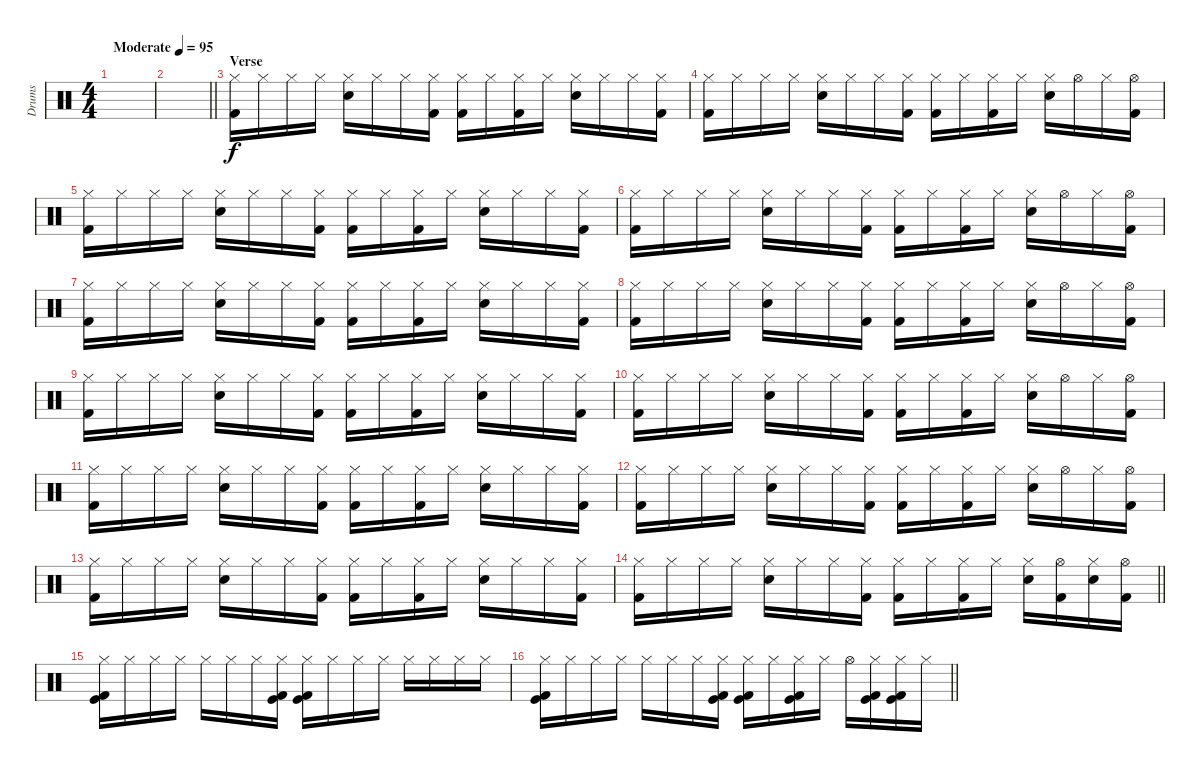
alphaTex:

\track ("Drums" "Drums") {instrument percussion}
\staff {score}
\articulation defaults
\ts (4 4)
\tempo (95 "Moderate")
\clef neutral
\ks c
|
\barLineRight lightlight
|
\section ("" "Verse")
("Hi-Hat (closed)" "Kick (hit) 2").16 "Hi-Hat (closed)".16 "Hi-Hat (closed)".16 "Hi-Hat (closed)".16 ("Hi-Hat (closed)" "Electric Snare (hit)").16 "Hi-Hat (closed)".16 "Hi-Hat (closed)".16 ("Hi-Hat (closed)" "Kick (hit) 2").16 ("Hi-Hat (closed)" "Kick (hit) 2").16 "Hi-Hat (closed)".16 ("Hi-Hat (closed)" "Kick (hit) 2").16 "Hi-Hat (closed)".16 ("Hi-Hat (closed)" "Electric Snare (hit)").16 "Hi-Hat (closed)".16 "Hi-Hat (closed)".16 ("Kick (hit) 2" "Hi-Hat (closed)").16 |
("Hi-Hat (closed)" "Kick (hit) 2").16 "Hi-Hat (closed)".16 "Hi-Hat (closed)".16 "Hi-Hat (closed)".16 ("Hi-Hat (closed)" "Electric Snare (hit)").16 "Hi-Hat (closed)".16 "Hi-Hat (closed)".16 ("Hi-Hat (closed)" "Kick (hit) 2").16 ("Hi-Hat (closed)" "Kick (hit) 2").16 "Hi-Hat (closed)".16 ("Hi-Hat (closed)" "Kick (hit) 2").16 "Hi-Hat (closed)".16 ("Hi-Hat (closed)" "Electric Snare (hit)").16 "Hi-Hat (open)".16 "Hi-Hat (closed)".16 ("Hi-Hat (open)" "Kick (hit) 2").16 |
("Hi-Hat (closed)" "Kick (hit) 2").16 "Hi-Hat (closed)".16 "Hi-Hat (closed)".16 "Hi-Hat (closed)".16 ("Hi-Hat (closed)" "Electric Snare (hit)").16 "Hi-Hat (closed)".16 "Hi-Hat (closed)".16 ("Hi-Hat (closed)" "Kick (hit) 2").16 ("Hi-Hat (closed)" "Kick (hit) 2").16 "Hi-Hat (closed)".16 ("Hi-Hat (closed)" "Kick (hit) 2").16 "Hi-Hat (closed)".16 ("Hi-Hat (closed)" "Electric Snare (hit)").16 "Hi-Hat (closed)".16 "Hi-Hat (closed)".16 ("Kick (hit) 2" "Hi-Hat (closed)").16 |
("Hi-Hat (closed)" "Kick (hit) 2").16 "Hi-Hat (closed)".16 "Hi-Hat (closed)".16 "Hi-Hat (closed)".16 ("Hi-Hat (closed)" "Electric Snare (hit)").16 "Hi-Hat (closed)".16 "Hi-Hat (closed)".16 ("Hi-Hat (closed)" "Kick (hit) 2").16 ("Hi-Hat (closed)" "Kick (hit) 2").16 "Hi-Hat (closed)".16 ("Hi-Hat (closed)" "Kick (hit) 2").16 "Hi-Hat (closed)".16 ("Hi-Hat (closed)" "Electric Snare (hit)").16 "Hi-Hat (open)".16 "Hi-Hat (closed)".16 ("Hi-Hat (open)" "Kick (hit) 2").16 |
("Hi-Hat (closed)" "Kick (hit) 2").16 "Hi-Hat (closed)".16 "Hi-Hat (closed)".16 "Hi-Hat (closed)".16 ("Hi-Hat (closed)" "Electric Snare (hit)").16 "Hi-Hat (closed)".16 "Hi-Hat (closed)".16 ("Hi-Hat (closed)" "Kick (hit) 2").16 ("Hi-Hat (closed)" "Kick (hit) 2").16 "Hi-Hat (closed)".16 ("Hi-Hat (closed)" "Kick (hit) 2").16 "Hi-Hat (closed)".16 ("Hi-Hat (closed)" "Electric Snare (hit)").16 "Hi-Hat (closed)".16 "Hi-Hat (closed)".16 ("Kick (hit) 2" "Hi-Hat (closed)").16 |
("Hi-Hat (closed)" "Kick (hit) 2").16 "Hi-Hat (closed)".16 "Hi-Hat (closed)".16 "Hi-Hat (closed)".16 ("Hi-Hat (closed)" "Electric Snare (hit)").16 "Hi-Hat (closed)".16 "Hi-Hat (closed)".16 ("Hi-Hat (closed)" "Kick (hit) 2").16 ("Hi-Hat (closed)" "Kick (hit) 2").16 "Hi-Hat (closed)".16 ("Hi-Hat (closed)" "Kick (hit) 2").16 "Hi-Hat (closed)".16 ("Hi-Hat (closed)" "Electric Snare (hit)").16 "Hi-Hat (open)".16 "Hi-Hat (closed)".16 ("Hi-Hat (open)" "Kick (hit) 2").16 |
("Hi-Hat (closed)" "Kick (hit) 2").16 "Hi-Hat (closed)".16 "Hi-Hat (closed)".16 "Hi-Hat (closed)".16 ("Hi-Hat (closed)" "Electric Snare (hit)").16 "Hi-Hat (closed)".16 "Hi-Hat (closed)".16 ("Hi-Hat (closed)" "Kick (hit) 2").16 ("Hi-Hat (closed)" "Kick (hit) 2").16 "Hi-Hat (closed)".16 ("Hi-Hat (closed)" "Kick (hit) 2").16 "Hi-Hat (closed)".16 ("Hi-Hat (closed)" "Electric Snare (hit)").16 "Hi-Hat (closed)".16 "Hi-Hat (closed)".16 ("Kick (hit) 2" "Hi-Hat (closed)").16 |
("Hi-Hat (closed)" "Kick (hit) 2").16 "Hi-Hat (closed)".16 "Hi-Hat (closed)".16 "Hi-Hat (closed)".16 ("Hi-Hat (closed)" "Electric Snare (hit)").16 "Hi-Hat (closed)".16 "Hi-Hat (closed)".16 ("Hi-Hat (closed)" "Kick (hit) 2").16 ("Hi-Hat (closed)" "Kick (hit) 2").16 "Hi-Hat (closed)".16 ("Hi-Hat (closed)" "Kick (hit) 2").16 "Hi-Hat (closed)".16 ("Hi-Hat (closed)" "Electric Snare (hit)").16 "Hi-Hat (open)".16 "Hi-Hat (closed)".16 ("Hi-Hat (open)" "Kick (hit) 2").16 |
("Hi-Hat (closed)" "Kick (hit) 2").16 "Hi-Hat (closed)".16 "Hi-Hat (closed)".16 "Hi-Hat (closed)".16 ("Hi-Hat (closed)" "Electric Snare (hit)").16 "Hi-Hat (closed)".16 "Hi-Hat (closed)".16 ("Hi-Hat (closed)" "Kick (hit) 2").16 ("Hi-Hat (closed)" "Kick (hit) 2").16 "Hi-Hat (closed)".16 ("Hi-Hat (closed)" "Kick (hit) 2").16 "Hi-Hat (closed)".16 ("Hi-Hat (closed)" "Electric Snare (hit)").16 "Hi-Hat (closed)".16 "Hi-Hat (closed)".16 ("Kick (hit) 2" "Hi-Hat (closed)").16 |
("Hi-Hat (closed)" "Kick (hit) 2").16 "Hi-Hat (closed)".16 "Hi-Hat (closed)".16 "Hi-Hat (closed)".16 ("Hi-Hat (closed)" "Electric Snare (hit)").16 "Hi-Hat (closed)".16 "Hi-Hat (closed)".16 ("Hi-Hat (closed)" "Kick (hit) 2").16 ("Hi-Hat (closed)" "Kick (hit) 2").16 "Hi-Hat (closed)".16 ("Hi-Hat (closed)" "Kick (hit) 2").16 "Hi-Hat (closed)".16 ("Hi-Hat (closed)" "Electric Snare (hit)").16 "Hi-Hat (open)".16 "Hi-Hat (closed)".16 ("Hi-Hat (open)" "Kick (hit) 2").16 |
("Hi-Hat (closed)" "Kick (hit) 2").16 "Hi-Hat (closed)".16 "Hi-Hat (closed)".16 "Hi-Hat (closed)".16 ("Hi-Hat (closed)" "Electric Snare (hit)").16 "Hi-Hat (closed)".16 "Hi-Hat (closed)".16 ("Hi-Hat (closed)" "Kick (hit) 2").16 ("Hi-Hat (closed)" "Kick (hit) 2").16 "Hi-Hat (closed)".16 ("Hi-Hat (closed)" "Kick (hit) 2").16 "Hi-Hat (closed)".16 ("Hi-Hat (closed)" "Electric Snare (hit)").16 "Hi-Hat (closed)".16 "Hi-Hat (closed)".16 ("Kick (hit) 2" "Hi-Hat (closed)").16 |
\barLineRight lightlight
("Hi-Hat (closed)" "Kick (hit) 2").16 "Hi-Hat (closed)".16 "Hi-Hat (closed)".16 "Hi-Hat (closed)".16 ("Hi-Hat (closed)" "Electric Snare (hit)").16 "Hi-Hat (closed)".16 "Hi-Hat (closed)".16 ("Hi-Hat (closed)" "Kick (hit) 2").16 ("Hi-Hat (closed)" "Kick (hit) 2").16 "Hi-Hat (closed)".16 ("Hi-Hat (closed)" "Kick (hit) 2").16 "Hi-Hat (closed)".16 ("Hi-Hat (closed)" "Electric Snare (hit)").16 ("Hi-Hat (open)" "Kick (hit) 2").16 ("Hi-Hat (closed)" "Electric Snare (hit)").16 ("Hi-Hat (open)" "Kick (hit) 2").16 |
("Hi-Hat (closed)" "Kick (hit) 2" "Kick (hit)").16 "Hi-Hat (closed)".16 "Hi-Hat (closed)".16 "Hi-Hat (closed)".16 "Hi-Hat (closed)".16 "Hi-Hat (closed)".16 "Hi-Hat (closed)".16 ("Hi-Hat (closed)" "Kick (hit) 2" "Kick (hit)").16 ("Hi-Hat (closed)" "Kick (hit) 2" "Kick (hit)").16 "Hi-Hat (closed)".16 "Hi-Hat (closed)".16 "Hi-Hat (closed)".16 "Hi-Hat (closed)".16 "Hi-Hat (closed)".16 "Hi-Hat (closed)".16 "Hi-Hat (closed)".16 |
\barLineRight lightlight
("Hi-Hat (closed)" "Kick (hit) 2" "Kick (hit)").16 "Hi-Hat (closed)".16 "Hi-Hat (closed)".16 "Hi-Hat (closed)".16 "Hi-Hat (closed)".16 "Hi-Hat (closed)".16 "Hi-Hat (closed)".16 ("Hi-Hat (closed)" "Kick (hit) 2" "Kick (hit)").16 ("Hi-Hat (closed)" "Kick (hit) 2" "Kick (hit)").16 "Hi-Hat (closed)".16 ("Hi-Hat (closed)" "Kick (hit) 2" "Kick (hit)").16 "Hi-Hat (closed)".16 "Hi-Hat (open)".16 ("Hi-Hat (closed)" "Kick (hit) 2" "Kick (hit)").16 ("Hi-Hat (closed)" "Kick (hit) 2" "Kick (hit)").16 "Hi-Hat (closed)".16
